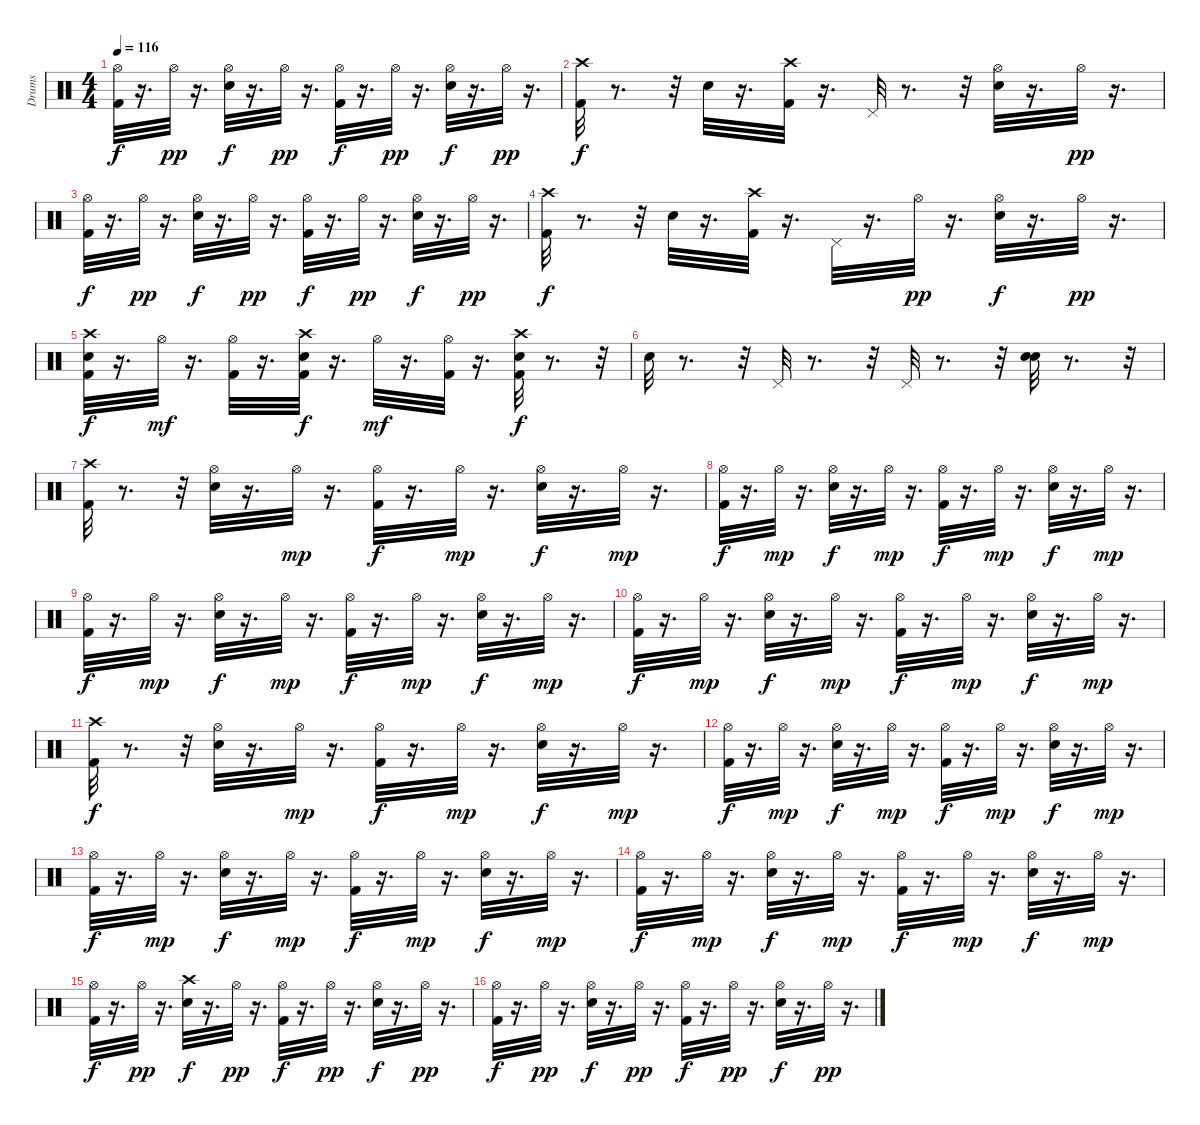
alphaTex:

\track ("Drums" "Drums") {instrument percussion}
\staff {score}
\articulation defaults
\ts (4 4)
\tempo 116
\clef neutral
\ks c
("Kick (hit) 2" "Hi-Hat (open)").32{dy f} r.16{d} "Hi-Hat (open)".32{dy pp} r.16{d} ("Electric Snare (hit)" "Hi-Hat (open)").32{dy f} r.16{d} "Hi-Hat (open)".32{dy pp} r.16{d} ("Kick (hit) 2" "Hi-Hat (open)").32{dy f} r.16{d} "Hi-Hat (open)".32{dy pp} r.16{d} ("Electric Snare (hit)" "Hi-Hat (open)").32{dy f} r.16{d} "Hi-Hat (open)".32{dy pp} r.16{d} |
("Crash high (hit)" "Kick (hit) 2").32{dy f} r.8{d} r.32 "Electric Snare (hit)".32 r.16{d} ("Crash high (hit)" "Kick (hit) 2").32 r.16{d} "Pedal Hi-Hat (hit)".32 r.8{d} r.32 ("Electric Snare (hit)" "Hi-Hat (open)").32 r.16{d} "Hi-Hat (open)".32{dy pp} r.16{d} |
("Kick (hit) 2" "Hi-Hat (open)").32{dy f} r.16{d} "Hi-Hat (open)".32{dy pp} r.16{d} ("Electric Snare (hit)" "Hi-Hat (open)").32{dy f} r.16{d} "Hi-Hat (open)".32{dy pp} r.16{d} ("Kick (hit) 2" "Hi-Hat (open)").32{dy f} r.16{d} "Hi-Hat (open)".32{dy pp} r.16{d} ("Electric Snare (hit)" "Hi-Hat (open)").32{dy f} r.16{d} "Hi-Hat (open)".32{dy pp} r.16{d} |
("Crash high (hit)" "Kick (hit) 2").32{dy f} r.8{d} r.32 "Electric Snare (hit)".32 r.16{d} ("Crash high (hit)" "Kick (hit) 2").32 r.16{d} "Pedal Hi-Hat (hit)".32 r.16{d} "Hi-Hat (open)".32{dy pp} r.16{d} ("Electric Snare (hit)" "Hi-Hat (open)").32{dy f} r.16{d} "Hi-Hat (open)".32{dy pp} r.16{d} |
("Electric Snare (hit)" "Crash high (hit)" "Kick (hit) 2").32{dy f} r.16{d} "Hi-Hat (open)".32{dy mf} r.16{d} ("Kick (hit) 2" "Hi-Hat (open)").32 r.16{d} ("Electric Snare (hit)" "Crash high (hit)" "Kick (hit) 2").32{dy f} r.16{d} "Hi-Hat (open)".32{dy mf} r.16{d} ("Kick (hit) 2" "Hi-Hat (open)").32 r.16{d} ("Electric Snare (hit)" "Crash high (hit)" "Kick (hit) 2").32{dy f} r.8{d} r.32 |
"Electric Snare (hit)".32 r.8{d} r.32 "Pedal Hi-Hat (hit)".32 r.8{d} r.32 "Pedal Hi-Hat (hit)".32 r.8{d} r.32 ("Electric Snare (hit)" "Snare (hit) 2").32 r.8{d} r.32 |
("Crash high (hit)" "Kick (hit) 2").32 r.8{d} r.32 ("Hi-Hat (open)" "Electric Snare (hit)").32 r.16{d} "Hi-Hat (open)".32{dy mp} r.16{d} ("Hi-Hat (open)" "Kick (hit) 2").32{dy f} r.16{d} "Hi-Hat (open)".32{dy mp} r.16{d} ("Hi-Hat (open)" "Electric Snare (hit)").32{dy f} r.16{d} "Hi-Hat (open)".32{dy mp} r.16{d} |
("Kick (hit) 2" "Hi-Hat (open)").32{dy f} r.16{d} "Hi-Hat (open)".32{dy mp} r.16{d} ("Electric Snare (hit)" "Hi-Hat (open)").32{dy f} r.16{d} "Hi-Hat (open)".32{dy mp} r.16{d} ("Kick (hit) 2" "Hi-Hat (open)").32{dy f} r.16{d} "Hi-Hat (open)".32{dy mp} r.16{d} ("Electric Snare (hit)" "Hi-Hat (open)").32{dy f} r.16{d} "Hi-Hat (open)".32{dy mp} r.16{d} |
("Kick (hit) 2" "Hi-Hat (open)").32{dy f} r.16{d} "Hi-Hat (open)".32{dy mp} r.16{d} ("Electric Snare (hit)" "Hi-Hat (open)").32{dy f} r.16{d} "Hi-Hat (open)".32{dy mp} r.16{d} ("Kick (hit) 2" "Hi-Hat (open)").32{dy f} r.16{d} "Hi-Hat (open)".32{dy mp} r.16{d} ("Electric Snare (hit)" "Hi-Hat (open)").32{dy f} r.16{d} "Hi-Hat (open)".32{dy mp} r.16{d} |
("Kick (hit) 2" "Hi-Hat (open)").32{dy f} r.16{d} "Hi-Hat (open)".32{dy mp} r.16{d} ("Electric Snare (hit)" "Hi-Hat (open)").32{dy f} r.16{d} "Hi-Hat (open)".32{dy mp} r.16{d} ("Kick (hit) 2" "Hi-Hat (open)").32{dy f} r.16{d} "Hi-Hat (open)".32{dy mp} r.16{d} ("Electric Snare (hit)" "Hi-Hat (open)").32{dy f} r.16{d} "Hi-Hat (open)".32{dy mp} r.16{d} |
("Crash high (hit)" "Kick (hit) 2").32{dy f} r.8{d} r.32 ("Hi-Hat (open)" "Electric Snare (hit)").32 r.16{d} "Hi-Hat (open)".32{dy mp} r.16{d} ("Hi-Hat (open)" "Kick (hit) 2").32{dy f} r.16{d} "Hi-Hat (open)".32{dy mp} r.16{d} ("Hi-Hat (open)" "Electric Snare (hit)").32{dy f} r.16{d} "Hi-Hat (open)".32{dy mp} r.16{d} |
("Kick (hit) 2" "Hi-Hat (open)").32{dy f} r.16{d} "Hi-Hat (open)".32{dy mp} r.16{d} ("Electric Snare (hit)" "Hi-Hat (open)").32{dy f} r.16{d} "Hi-Hat (open)".32{dy mp} r.16{d} ("Kick (hit) 2" "Hi-Hat (open)").32{dy f} r.16{d} "Hi-Hat (open)".32{dy mp} r.16{d} ("Electric Snare (hit)" "Hi-Hat (open)").32{dy f} r.16{d} "Hi-Hat (open)".32{dy mp} r.16{d} |
("Kick (hit) 2" "Hi-Hat (open)").32{dy f} r.16{d} "Hi-Hat (open)".32{dy mp} r.16{d} ("Electric Snare (hit)" "Hi-Hat (open)").32{dy f} r.16{d} "Hi-Hat (open)".32{dy mp} r.16{d} ("Kick (hit) 2" "Hi-Hat (open)").32{dy f} r.16{d} "Hi-Hat (open)".32{dy mp} r.16{d} ("Electric Snare (hit)" "Hi-Hat (open)").32{dy f} r.16{d} "Hi-Hat (open)".32{dy mp} r.16{d} |
("Kick (hit) 2" "Hi-Hat (open)").32{dy f} r.16{d} "Hi-Hat (open)".32{dy mp} r.16{d} ("Electric Snare (hit)" "Hi-Hat (open)").32{dy f} r.16{d} "Hi-Hat (open)".32{dy mp} r.16{d} ("Kick (hit) 2" "Hi-Hat (open)").32{dy f} r.16{d} "Hi-Hat (open)".32{dy mp} r.16{d} ("Electric Snare (hit)" "Hi-Hat (open)").32{dy f} r.16{d} "Hi-Hat (open)".32{dy mp} r.16{d} |
("Kick (hit) 2" "Hi-Hat (open)").32{dy f} r.16{d} "Hi-Hat (open)".32{dy pp} r.16{d} ("Crash high (hit)" "Electric Snare (hit)").32{dy f} r.16{d} "Hi-Hat (open)".32{dy pp} r.16{d} ("Kick (hit) 2" "Hi-Hat (open)").32{dy f} r.16{d} "Hi-Hat (open)".32{dy pp} r.16{d} ("Hi-Hat (open)" "Electric Snare (hit)").32{dy f} r.16{d} "Hi-Hat (open)".32{dy pp} r.16{d} |
("Kick (hit) 2" "Hi-Hat (open)").32{dy f} r.16{d} "Hi-Hat (open)".32{dy pp} r.16{d} ("Electric Snare (hit)" "Hi-Hat (open)").32{dy f} r.16{d} "Hi-Hat (open)".32{dy pp} r.16{d} ("Kick (hit) 2" "Hi-Hat (open)").32{dy f} r.16{d} "Hi-Hat (open)".32{dy pp} r.16{d} ("Electric Snare (hit)" "Hi-Hat (open)").32{dy f} r.16{d} "Hi-Hat (open)".32{dy pp} r.16{d}
